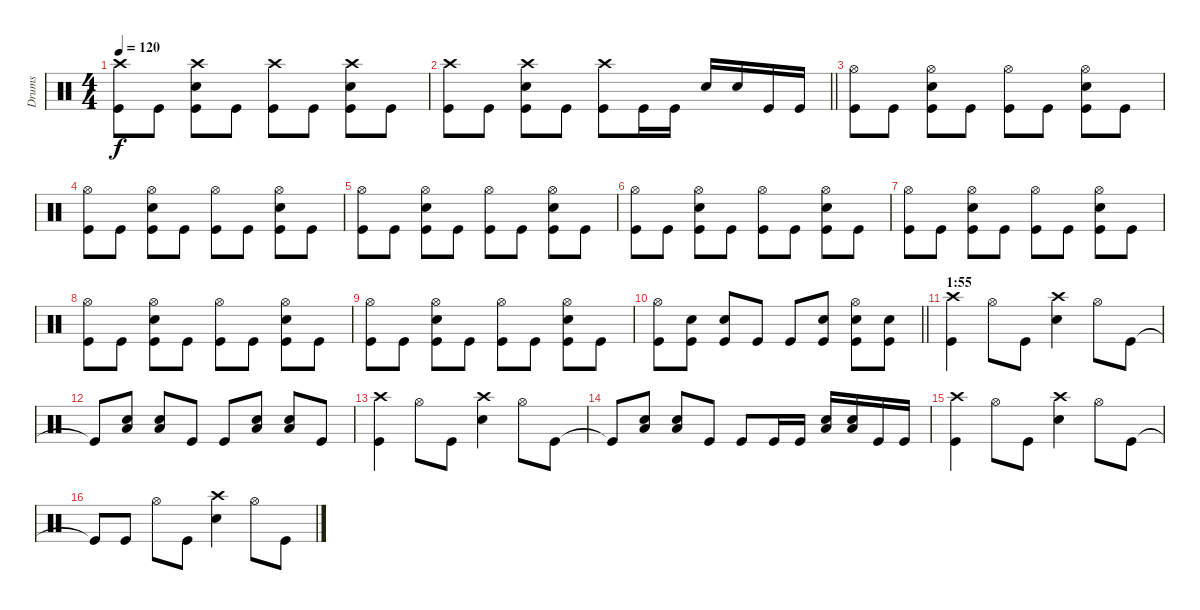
\track ("Drums" "Drums") {instrument percussion}
\staff {score}
\articulation defaults
\ts (4 4)
\tempo 120
\clef neutral
\ks c
("Crash high (hit)" "Kick (hit)").8{dy f} "Kick (hit)".8 ("Crash high (hit)" "Electric Snare (hit)" "Kick (hit)").8 "Kick (hit)".8 ("Crash high (hit)" "Kick (hit)").8 "Kick (hit)".8 ("Crash high (hit)" "Electric Snare (hit)" "Kick (hit)").8 "Kick (hit)".8 |
\barLineRight lightlight
("Crash high (hit)" "Kick (hit)").8 "Kick (hit)".8 ("Crash high (hit)" "Electric Snare (hit)" "Kick (hit)").8 "Kick (hit)".8 ("Crash high (hit)" "Kick (hit)").8 "Kick (hit)".16 "Kick (hit)".16 "Electric Snare (hit)".16 "Electric Snare (hit)".16 "Kick (hit)".16 "Kick (hit)".16 |
("Hi-Hat (open)" "Kick (hit)").8 "Kick (hit)".8 ("Hi-Hat (open)" "Electric Snare (hit)" "Kick (hit)").8 "Kick (hit)".8 ("Hi-Hat (open)" "Kick (hit)").8 "Kick (hit)".8 ("Hi-Hat (open)" "Electric Snare (hit)" "Kick (hit)").8 "Kick (hit)".8 |
("Hi-Hat (open)" "Kick (hit)").8 "Kick (hit)".8 ("Hi-Hat (open)" "Electric Snare (hit)" "Kick (hit)").8 "Kick (hit)".8 ("Hi-Hat (open)" "Kick (hit)").8 "Kick (hit)".8 ("Hi-Hat (open)" "Electric Snare (hit)" "Kick (hit)").8 "Kick (hit)".8 |
("Hi-Hat (open)" "Kick (hit)").8 "Kick (hit)".8 ("Hi-Hat (open)" "Electric Snare (hit)" "Kick (hit)").8 "Kick (hit)".8 ("Hi-Hat (open)" "Kick (hit)").8 "Kick (hit)".8 ("Hi-Hat (open)" "Electric Snare (hit)" "Kick (hit)").8 "Kick (hit)".8 |
("Hi-Hat (open)" "Kick (hit)").8 "Kick (hit)".8 ("Hi-Hat (open)" "Electric Snare (hit)" "Kick (hit)").8 "Kick (hit)".8 ("Hi-Hat (open)" "Kick (hit)").8 "Kick (hit)".8 ("Hi-Hat (open)" "Electric Snare (hit)" "Kick (hit)").8 "Kick (hit)".8 |
("Hi-Hat (open)" "Kick (hit)").8 "Kick (hit)".8 ("Hi-Hat (open)" "Electric Snare (hit)" "Kick (hit)").8 "Kick (hit)".8 ("Hi-Hat (open)" "Kick (hit)").8 "Kick (hit)".8 ("Hi-Hat (open)" "Electric Snare (hit)" "Kick (hit)").8 "Kick (hit)".8 |
("Hi-Hat (open)" "Kick (hit)").8 "Kick (hit)".8 ("Hi-Hat (open)" "Electric Snare (hit)" "Kick (hit)").8 "Kick (hit)".8 ("Hi-Hat (open)" "Kick (hit)").8 "Kick (hit)".8 ("Hi-Hat (open)" "Electric Snare (hit)" "Kick (hit)").8 "Kick (hit)".8 |
("Hi-Hat (open)" "Kick (hit)").8 "Kick (hit)".8 ("Hi-Hat (open)" "Electric Snare (hit)" "Kick (hit)").8 "Kick (hit)".8 ("Hi-Hat (open)" "Kick (hit)").8 "Kick (hit)".8 ("Hi-Hat (open)" "Electric Snare (hit)" "Kick (hit)").8 "Kick (hit)".8 |
\barLineRight lightlight
("Hi-Hat (open)" "Kick (hit)").8 ("Electric Snare (hit)" "Kick (hit)").8 ("Electric Snare (hit)" "Kick (hit)").8 "Kick (hit)".8 "Kick (hit)".8 ("Electric Snare (hit)" "Kick (hit)").8 ("Hi-Hat (open)" "Electric Snare (hit)" "Kick (hit)").8 ("Electric Snare (hit)" "Kick (hit)").8 |
\section ("" "1:55")
("Crash high (hit)" "Kick (hit)").4 "Hi-Hat (open)".8 "Kick (hit)".8 ("Crash high (hit)" "Electric Snare (hit)").4 "Hi-Hat (open)".8 "Kick (hit)".8 |
"Kick (hit)"{t}.8 ("Low Floor Tom (hit)" "Electric Snare (hit)").8 ("Low Floor Tom (hit)" "Electric Snare (hit)").8 "Kick (hit)".8 "Kick (hit)".8 ("Low Floor Tom (hit)" "Electric Snare (hit)").8 ("Low Floor Tom (hit)" "Electric Snare (hit)").8 "Kick (hit)".8 |
("Crash high (hit)" "Kick (hit)").4 "Hi-Hat (open)".8 "Kick (hit)".8 ("Crash high (hit)" "Electric Snare (hit)").4 "Hi-Hat (open)".8 "Kick (hit)".8 |
"Kick (hit)"{t}.8 ("Low Floor Tom (hit)" "Electric Snare (hit)").8 ("Low Floor Tom (hit)" "Electric Snare (hit)").8 "Kick (hit)".8 "Kick (hit)".8 "Kick (hit)".16 "Kick (hit)".16 ("Low Floor Tom (hit)" "Electric Snare (hit)").16 ("Low Floor Tom (hit)" "Electric Snare (hit)").16 "Kick (hit)".16 "Kick (hit)".16 |
("Crash high (hit)" "Kick (hit)").4 "Hi-Hat (open)".8 "Kick (hit)".8 ("Crash high (hit)" "Electric Snare (hit)").4 "Hi-Hat (open)".8 "Kick (hit)".8 |
"Kick (hit)"{t}.8 "Kick (hit)".8 "Hi-Hat (open)".8 "Kick (hit)".8 ("Crash high (hit)" "Electric Snare (hit)").4 "Hi-Hat (open)".8 "Kick (hit)".8
